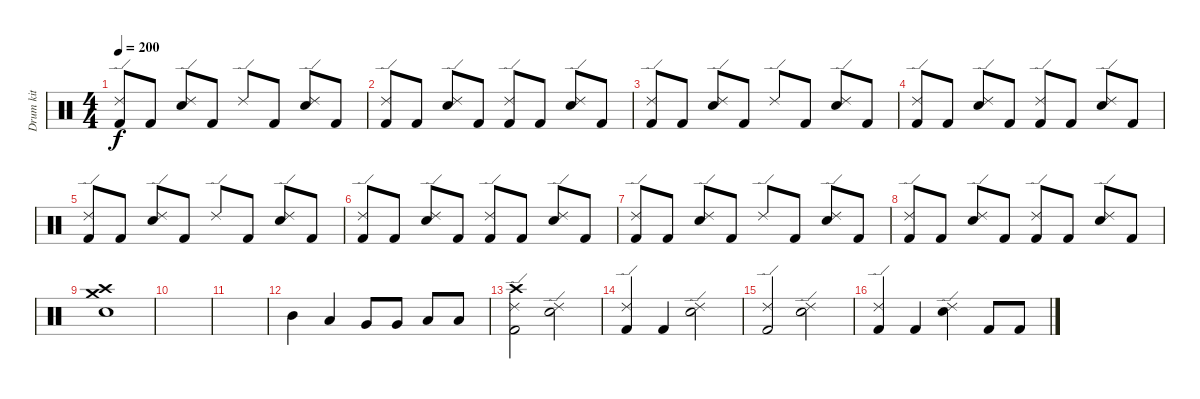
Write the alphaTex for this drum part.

\track ("Drum kit" "Drum kit") {instrument percussion}
\staff {score}
\articulation defaults
\ts (4 4)
\tempo 200
\clef neutral
\ks c
("Kick (hit) 2" "Ride (edge) 2").8{dy f} "Kick (hit) 2".8 ("Electric Snare (hit)" "Ride (edge) 2").8 "Kick (hit) 2".8 "Ride (edge) 2".8 "Kick (hit) 2".8 ("Electric Snare (hit)" "Ride (edge) 2").8 "Kick (hit) 2".8 |
("Kick (hit) 2" "Ride (edge) 2").8 "Kick (hit) 2".8 ("Electric Snare (hit)" "Ride (edge) 2").8 "Kick (hit) 2".8 ("Kick (hit) 2" "Ride (edge) 2").8 "Kick (hit) 2".8 ("Electric Snare (hit)" "Ride (edge) 2").8 "Kick (hit) 2".8 |
("Kick (hit) 2" "Ride (edge) 2").8 "Kick (hit) 2".8 ("Electric Snare (hit)" "Ride (edge) 2").8 "Kick (hit) 2".8 "Ride (edge) 2".8 "Kick (hit) 2".8 ("Electric Snare (hit)" "Ride (edge) 2").8 "Kick (hit) 2".8 |
("Kick (hit) 2" "Ride (edge) 2").8 "Kick (hit) 2".8 ("Electric Snare (hit)" "Ride (edge) 2").8 "Kick (hit) 2".8 ("Kick (hit) 2" "Ride (edge) 2").8 "Kick (hit) 2".8 ("Electric Snare (hit)" "Ride (edge) 2").8 "Kick (hit) 2".8 |
("Kick (hit) 2" "Ride (edge) 2").8 "Kick (hit) 2".8 ("Electric Snare (hit)" "Ride (edge) 2").8 "Kick (hit) 2".8 "Ride (edge) 2".8 "Kick (hit) 2".8 ("Electric Snare (hit)" "Ride (edge) 2").8 "Kick (hit) 2".8 |
("Kick (hit) 2" "Ride (edge) 2").8 "Kick (hit) 2".8 ("Electric Snare (hit)" "Ride (edge) 2").8 "Kick (hit) 2".8 ("Kick (hit) 2" "Ride (edge) 2").8 "Kick (hit) 2".8 ("Electric Snare (hit)" "Ride (edge) 2").8 "Kick (hit) 2".8 |
("Kick (hit) 2" "Ride (edge) 2").8 "Kick (hit) 2".8 ("Electric Snare (hit)" "Ride (edge) 2").8 "Kick (hit) 2".8 "Ride (edge) 2".8 "Kick (hit) 2".8 ("Electric Snare (hit)" "Ride (edge) 2").8 "Kick (hit) 2".8 |
("Kick (hit) 2" "Ride (edge) 2").8 "Kick (hit) 2".8 ("Electric Snare (hit)" "Ride (edge) 2").8 "Kick (hit) 2".8 ("Kick (hit) 2" "Ride (edge) 2").8 "Kick (hit) 2".8 ("Electric Snare (hit)" "Ride (edge) 2").8 "Kick (hit) 2".8 |
("Crash medium (hit)" "Crash high (hit)" "Electric Snare (hit)").1 |
|
|
"Mid Tom (hit)".4 "Low Tom (hit)".4 "Very Low Tom (hit)".8 "Very Low Tom (hit)".8 "Low Floor Tom (hit)".8 "Low Floor Tom (hit)".8 |
("Crash high (hit)" "Kick (hit) 2" "Ride (edge) 2").2 ("Electric Snare (hit)" "Ride (edge) 2").2 |
("Kick (hit) 2" "Ride (edge) 2").4 "Kick (hit) 2".4 ("Electric Snare (hit)" "Ride (edge) 2").2 |
("Kick (hit) 2" "Ride (edge) 2").2 ("Electric Snare (hit)" "Ride (edge) 2").2 |
("Kick (hit) 2" "Ride (edge) 2").4 "Kick (hit) 2".4 ("Electric Snare (hit)" "Ride (edge) 2").4 "Kick (hit) 2".8 "Kick (hit) 2".8
